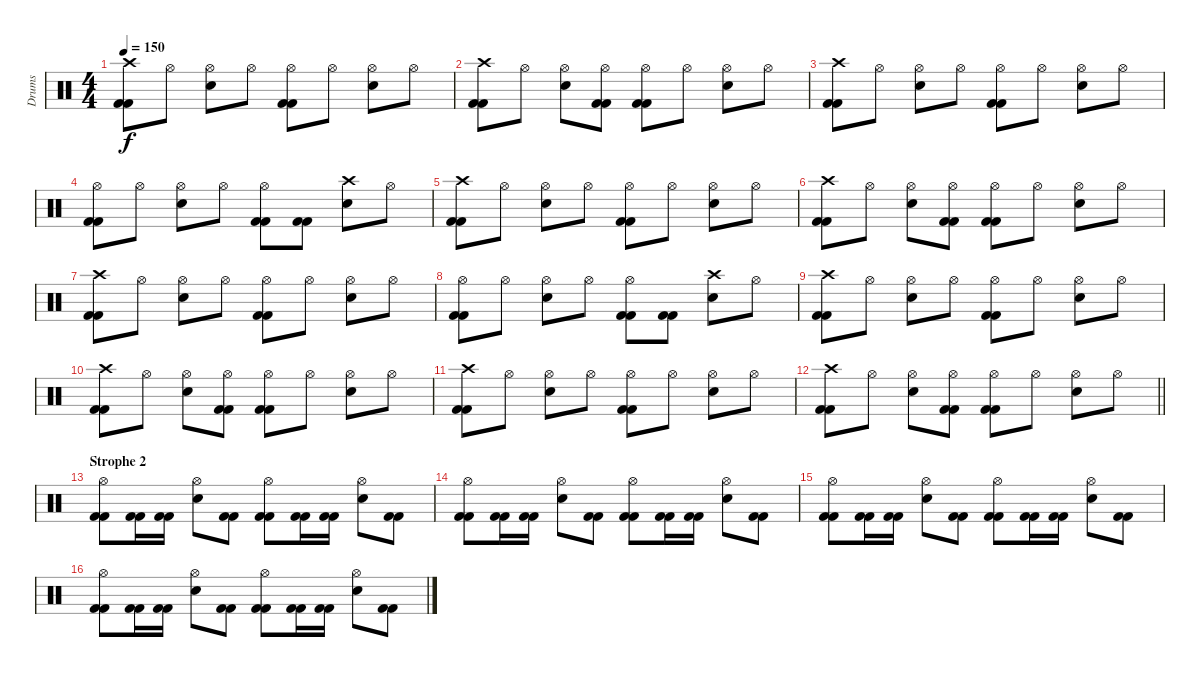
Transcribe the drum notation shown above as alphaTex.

\track ("Drums" "Drums") {instrument percussion}
\staff {score}
\articulation defaults
\ts (4 4)
\tempo 150
\clef neutral
\ks c
("Crash high (hit)" "Kick (hit) 2" "Kick (hit) 2").8{dy f} "Hi-Hat (open)".8 ("Electric Snare (hit)" "Hi-Hat (open)").8 "Hi-Hat (open)".8 ("Hi-Hat (open)" "Kick (hit) 2" "Kick (hit) 2").8 "Hi-Hat (open)".8 ("Electric Snare (hit)" "Hi-Hat (open)").8 "Hi-Hat (open)".8 |
("Crash high (hit)" "Kick (hit) 2" "Kick (hit) 2").8 "Hi-Hat (open)".8 ("Electric Snare (hit)" "Hi-Hat (open)").8 ("Kick (hit) 2" "Kick (hit) 2" "Hi-Hat (open)").8 ("Hi-Hat (open)" "Kick (hit) 2" "Kick (hit) 2").8 "Hi-Hat (open)".8 ("Electric Snare (hit)" "Hi-Hat (open)").8 "Hi-Hat (open)".8 |
("Crash high (hit)" "Kick (hit) 2" "Kick (hit) 2").8 "Hi-Hat (open)".8 ("Electric Snare (hit)" "Hi-Hat (open)").8 "Hi-Hat (open)".8 ("Hi-Hat (open)" "Kick (hit) 2" "Kick (hit) 2").8 "Hi-Hat (open)".8 ("Electric Snare (hit)" "Hi-Hat (open)").8 "Hi-Hat (open)".8 |
("Hi-Hat (open)" "Kick (hit) 2" "Kick (hit) 2").8 "Hi-Hat (open)".8 ("Electric Snare (hit)" "Hi-Hat (open)").8 "Hi-Hat (open)".8 ("Hi-Hat (open)" "Kick (hit) 2" "Kick (hit) 2").8 ("Kick (hit) 2" "Kick (hit) 2").8 ("Electric Snare (hit)" "Crash high (hit)").8 "Hi-Hat (open)".8 |
("Crash high (hit)" "Kick (hit) 2" "Kick (hit) 2").8 "Hi-Hat (open)".8 ("Electric Snare (hit)" "Hi-Hat (open)").8 "Hi-Hat (open)".8 ("Hi-Hat (open)" "Kick (hit) 2" "Kick (hit) 2").8 "Hi-Hat (open)".8 ("Electric Snare (hit)" "Hi-Hat (open)").8 "Hi-Hat (open)".8 |
("Crash high (hit)" "Kick (hit) 2" "Kick (hit) 2").8 "Hi-Hat (open)".8 ("Electric Snare (hit)" "Hi-Hat (open)").8 ("Kick (hit) 2" "Kick (hit) 2" "Hi-Hat (open)").8 ("Hi-Hat (open)" "Kick (hit) 2" "Kick (hit) 2").8 "Hi-Hat (open)".8 ("Electric Snare (hit)" "Hi-Hat (open)").8 "Hi-Hat (open)".8 |
("Crash high (hit)" "Kick (hit) 2" "Kick (hit) 2").8 "Hi-Hat (open)".8 ("Electric Snare (hit)" "Hi-Hat (open)").8 "Hi-Hat (open)".8 ("Hi-Hat (open)" "Kick (hit) 2" "Kick (hit) 2").8 "Hi-Hat (open)".8 ("Electric Snare (hit)" "Hi-Hat (open)").8 "Hi-Hat (open)".8 |
("Hi-Hat (open)" "Kick (hit) 2" "Kick (hit) 2").8 "Hi-Hat (open)".8 ("Electric Snare (hit)" "Hi-Hat (open)").8 "Hi-Hat (open)".8 ("Hi-Hat (open)" "Kick (hit) 2" "Kick (hit) 2").8 ("Kick (hit) 2" "Kick (hit) 2").8 ("Electric Snare (hit)" "Crash high (hit)").8 "Hi-Hat (open)".8 |
("Crash high (hit)" "Kick (hit) 2" "Kick (hit) 2").8 "Hi-Hat (open)".8 ("Electric Snare (hit)" "Hi-Hat (open)").8 "Hi-Hat (open)".8 ("Hi-Hat (open)" "Kick (hit) 2" "Kick (hit) 2").8 "Hi-Hat (open)".8 ("Electric Snare (hit)" "Hi-Hat (open)").8 "Hi-Hat (open)".8 |
("Crash high (hit)" "Kick (hit) 2" "Kick (hit) 2").8 "Hi-Hat (open)".8 ("Electric Snare (hit)" "Hi-Hat (open)").8 ("Kick (hit) 2" "Kick (hit) 2" "Hi-Hat (open)").8 ("Hi-Hat (open)" "Kick (hit) 2" "Kick (hit) 2").8 "Hi-Hat (open)".8 ("Electric Snare (hit)" "Hi-Hat (open)").8 "Hi-Hat (open)".8 |
("Crash high (hit)" "Kick (hit) 2" "Kick (hit) 2").8 "Hi-Hat (open)".8 ("Electric Snare (hit)" "Hi-Hat (open)").8 "Hi-Hat (open)".8 ("Hi-Hat (open)" "Kick (hit) 2" "Kick (hit) 2").8 "Hi-Hat (open)".8 ("Electric Snare (hit)" "Hi-Hat (open)").8 "Hi-Hat (open)".8 |
\barLineRight lightlight
("Crash high (hit)" "Kick (hit) 2" "Kick (hit) 2").8 "Hi-Hat (open)".8 ("Electric Snare (hit)" "Hi-Hat (open)").8 ("Kick (hit) 2" "Kick (hit) 2" "Hi-Hat (open)").8 ("Hi-Hat (open)" "Kick (hit) 2" "Kick (hit) 2").8 "Hi-Hat (open)".8 ("Electric Snare (hit)" "Hi-Hat (open)").8 "Hi-Hat (open)".8 |
\section ("" "Strophe 2")
("Hi-Hat (open)" "Kick (hit) 2" "Kick (hit) 2").8 ("Kick (hit) 2" "Kick (hit) 2").16 ("Kick (hit) 2" "Kick (hit) 2").16 ("Electric Snare (hit)" "Hi-Hat (open)").8 ("Kick (hit) 2" "Kick (hit) 2").8 ("Hi-Hat (open)" "Kick (hit) 2" "Kick (hit) 2").8 ("Kick (hit) 2" "Kick (hit) 2").16 ("Kick (hit) 2" "Kick (hit) 2").16 ("Electric Snare (hit)" "Hi-Hat (open)").8 ("Kick (hit) 2" "Kick (hit) 2").8 |
("Hi-Hat (open)" "Kick (hit) 2" "Kick (hit) 2").8 ("Kick (hit) 2" "Kick (hit) 2").16 ("Kick (hit) 2" "Kick (hit) 2").16 ("Electric Snare (hit)" "Hi-Hat (open)").8 ("Kick (hit) 2" "Kick (hit) 2").8 ("Hi-Hat (open)" "Kick (hit) 2" "Kick (hit) 2").8 ("Kick (hit) 2" "Kick (hit) 2").16 ("Kick (hit) 2" "Kick (hit) 2").16 ("Electric Snare (hit)" "Hi-Hat (open)").8 ("Kick (hit) 2" "Kick (hit) 2").8 |
("Hi-Hat (open)" "Kick (hit) 2" "Kick (hit) 2").8 ("Kick (hit) 2" "Kick (hit) 2").16 ("Kick (hit) 2" "Kick (hit) 2").16 ("Electric Snare (hit)" "Hi-Hat (open)").8 ("Kick (hit) 2" "Kick (hit) 2").8 ("Hi-Hat (open)" "Kick (hit) 2" "Kick (hit) 2").8 ("Kick (hit) 2" "Kick (hit) 2").16 ("Kick (hit) 2" "Kick (hit) 2").16 ("Electric Snare (hit)" "Hi-Hat (open)").8 ("Kick (hit) 2" "Kick (hit) 2").8 |
("Hi-Hat (open)" "Kick (hit) 2" "Kick (hit) 2").8 ("Kick (hit) 2" "Kick (hit) 2").16 ("Kick (hit) 2" "Kick (hit) 2").16 ("Electric Snare (hit)" "Hi-Hat (open)").8 ("Kick (hit) 2" "Kick (hit) 2").8 ("Hi-Hat (open)" "Kick (hit) 2" "Kick (hit) 2").8 ("Kick (hit) 2" "Kick (hit) 2").16 ("Kick (hit) 2" "Kick (hit) 2").16 ("Electric Snare (hit)" "Hi-Hat (open)").8 ("Kick (hit) 2" "Kick (hit) 2").8
